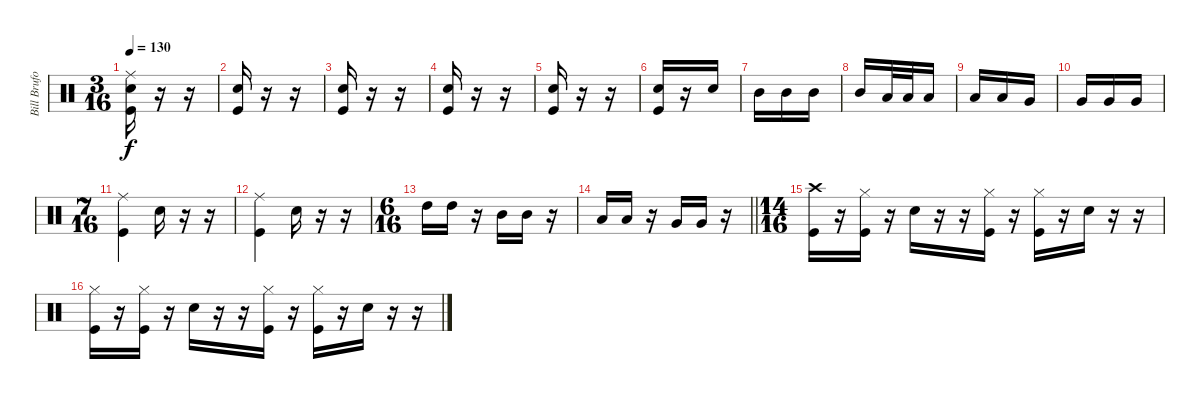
\track ("Bill Bruford" "Bill Brufo") {instrument percussion}
\staff {score}
\articulation defaults
\ts (3 16)
\tempo 130
\clef neutral
\ks c
("Ride (middle)" "Snare (hit) 2" "Kick (hit)").16{dy f} r.16 r.16 |
("Snare (hit) 2" "Kick (hit)").16 r.16 r.16 |
("Snare (hit) 2" "Kick (hit)").16 r.16 r.16 |
("Snare (hit) 2" "Kick (hit)").16 r.16 r.16 |
("Snare (hit) 2" "Kick (hit)").16 r.16 r.16 |
("Snare (hit) 2" "Kick (hit)").16 r.16 "Snare (hit) 2".16 |
"Mid Tom (hit)".16 "Mid Tom (hit)".16 "Mid Tom (hit)".16 |
"Mid Tom (hit)".16 "Low Tom (hit)".32 "Low Tom (hit)".32 "Low Tom (hit)".16 |
"Low Tom (hit)".16 "Low Tom (hit)".16 "Very Low Tom (hit)".16 |
"Very Low Tom (hit)".16 "Very Low Tom (hit)".16 "Very Low Tom (hit)".16 |
\ts (7 16)
("Ride (middle)" "Kick (hit)").4 "Snare (hit) 2".16 r.16 r.16 |
("Ride (middle)" "Kick (hit)").4 "Snare (hit) 2".16 r.16 r.16 |
\ts (6 16)
"High Tom (hit)".16 "High Tom (hit)".16 r.16 "Mid Tom (hit)".16 "Mid Tom (hit)".16 r.16 |
\barLineRight lightlight "Low Tom (hit)".16 "Low Tom (hit)".16
r.16 "Very Low Tom (hit)".16 "Very Low Tom (hit)".16 r.16 |
\ts (14 16)
("Crash high (hit)" "Kick (hit)").16 r.16 ("Hi-Hat (closed)" "Kick (hit)").16 r.16 "Snare (hit) 2".16 r.16 r.16 ("Hi-Hat (closed)" "Kick (hit)").16 r.16 ("Hi-Hat (closed)" "Kick (hit)").16 r.16 "Snare (hit) 2".16 r.16 r.16 |
("Hi-Hat (closed)" "Kick (hit)").16 r.16 ("Hi-Hat (closed)" "Kick (hit)").16 r.16 "Snare (hit) 2".16 r.16 r.16 ("Hi-Hat (closed)" "Kick (hit)").16 r.16 ("Hi-Hat (closed)" "Kick (hit)").16 r.16 "Snare (hit) 2".16 r.16 r.16
